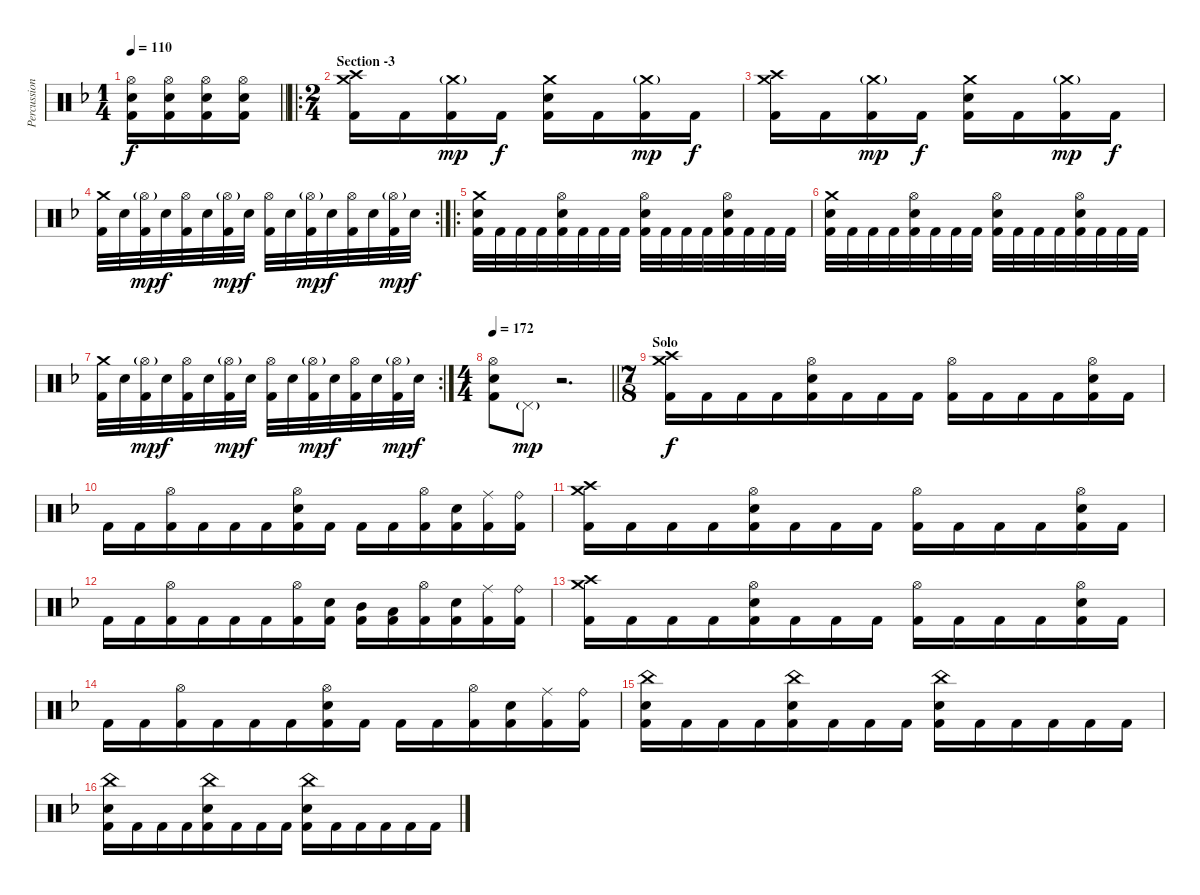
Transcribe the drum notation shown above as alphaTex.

\track ("Percussion" "Percussion") {instrument percussion}
\staff {score}
\articulation defaults
\ts (1 4)
\tempo 110
\clef neutral
\barLineRight lightlight
\ks dminor
("Hi-Hat (open)" "Electric Snare (hit)" "Kick (hit) 2").16{dy f} ("Hi-Hat (open)" "Electric Snare (hit)" "Kick (hit) 2").16 ("Hi-Hat (open)" "Electric Snare (hit)" "Kick (hit) 2").16 ("Hi-Hat (open)" "Electric Snare (hit)" "Kick (hit) 2").16 |
\ro
\ts (2 4)
\section ("" "Section -3")
("Crash high (hit)" "Crash medium (hit)" "Kick (hit) 2").16 "Kick (hit) 2".16 ("Crash medium (hit)"{g} "Kick (hit) 2").16{dy mp} "Kick (hit) 2".16{dy f} ("Crash medium (hit)" "Electric Snare (hit)" "Kick (hit) 2").16 "Kick (hit) 2".16 ("Crash medium (hit)"{g} "Kick (hit) 2").16{dy mp} "Kick (hit) 2".16{dy f} |
("Crash high (hit)" "Crash medium (hit)" "Kick (hit) 2").16 "Kick (hit) 2".16 ("Crash medium (hit)"{g} "Kick (hit) 2").16{dy mp} "Kick (hit) 2".16{dy f} ("Crash medium (hit)" "Electric Snare (hit)" "Kick (hit) 2").16 "Kick (hit) 2".16 ("Crash medium (hit)"{g} "Kick (hit) 2").16{dy mp} "Kick (hit) 2".16{dy f} |
\rc 2
("Crash medium (hit)" "Kick (hit) 2").32 "Electric Snare (hit)".32 ("Hi-Hat (open)"{g} "Kick (hit) 2").32{dy mp} "Electric Snare (hit)".32{dy f} ("Hi-Hat (open)" "Kick (hit) 2").32 "Electric Snare (hit)".32 ("Hi-Hat (open)"{g} "Kick (hit) 2").32{dy mp} "Electric Snare (hit)".32{dy f} ("Hi-Hat (open)" "Kick (hit) 2").32 "Electric Snare (hit)".32 ("Hi-Hat (open)"{g} "Kick (hit) 2").32{dy mp} "Electric Snare (hit)".32{dy f} ("Hi-Hat (open)" "Kick (hit) 2").32 "Electric Snare (hit)".32 ("Hi-Hat (open)"{g} "Kick (hit) 2").32{dy mp} "Electric Snare (hit)".32{dy f} |
\ro
("Crash medium (hit)" "Electric Snare (hit)" "Kick (hit) 2").32 "Kick (hit) 2".32 "Kick (hit) 2".32 "Kick (hit) 2".32 ("Hi-Hat (open)" "Electric Snare (hit)" "Kick (hit) 2").32 "Kick (hit) 2".32 "Kick (hit) 2".32 "Kick (hit) 2".32 ("Hi-Hat (open)" "Electric Snare (hit)" "Kick (hit) 2").32 "Kick (hit) 2".32 "Kick (hit) 2".32 "Kick (hit) 2".32 ("Hi-Hat (open)" "Electric Snare (hit)" "Kick (hit) 2").32 "Kick (hit) 2".32 "Kick (hit) 2".32 "Kick (hit) 2".32 |
("Crash medium (hit)" "Electric Snare (hit)" "Kick (hit) 2").32 "Kick (hit) 2".32 "Kick (hit) 2".32 "Kick (hit) 2".32 ("Hi-Hat (open)" "Electric Snare (hit)" "Kick (hit) 2").32 "Kick (hit) 2".32 "Kick (hit) 2".32 "Kick (hit) 2".32 ("Hi-Hat (open)" "Electric Snare (hit)" "Kick (hit) 2").32 "Kick (hit) 2".32 "Kick (hit) 2".32 "Kick (hit) 2".32 ("Hi-Hat (open)" "Electric Snare (hit)" "Kick (hit) 2").32 "Kick (hit) 2".32 "Kick (hit) 2".32 "Kick (hit) 2".32 |
\rc 2
("Crash medium (hit)" "Kick (hit) 2").32 "Electric Snare (hit)".32 ("Hi-Hat (open)"{g} "Kick (hit) 2").32{dy mp} "Electric Snare (hit)".32{dy f} ("Hi-Hat (open)" "Kick (hit) 2").32 "Electric Snare (hit)".32 ("Hi-Hat (open)"{g} "Kick (hit) 2").32{dy mp} "Electric Snare (hit)".32{dy f} ("Hi-Hat (open)" "Kick (hit) 2").32 "Electric Snare (hit)".32 ("Hi-Hat (open)"{g} "Kick (hit) 2").32{dy mp} "Electric Snare (hit)".32{dy f} ("Hi-Hat (open)" "Kick (hit) 2").32 "Electric Snare (hit)".32 ("Hi-Hat (open)"{g} "Kick (hit) 2").32{dy mp} "Electric Snare (hit)".32{dy f} |
\ts (4 4)
\tempo 172
\barLineRight lightlight
("Hi-Hat (open)" "Electric Snare (hit)" "Kick (hit) 2").8 "Pedal Hi-Hat (hit)"{g}.8{dy mp} r.2{d} |
\ts (7 8)
\section ("" "Solo")
("Crash high (hit)" "Crash medium (hit)" "Kick (hit) 2").16{dy f} "Kick (hit) 2".16 "Kick (hit) 2".16 "Kick (hit) 2".16 ("Hi-Hat (open)" "Electric Snare (hit)" "Kick (hit) 2").16 "Kick (hit) 2".16 "Kick (hit) 2".16 "Kick (hit) 2".16 ("Hi-Hat (open)" "Kick (hit) 2").16 "Kick (hit) 2".16 "Kick (hit) 2".16 "Kick (hit) 2".16 ("Hi-Hat (open)" "Electric Snare (hit)" "Kick (hit) 2").16 "Kick (hit) 2".16 |
"Kick (hit) 2".16 "Kick (hit) 2".16 ("Hi-Hat (open)" "Kick (hit) 2").16 "Kick (hit) 2".16 "Kick (hit) 2".16 "Kick (hit) 2".16 ("Hi-Hat (open)" "Electric Snare (hit)" "Kick (hit) 2").16 "Kick (hit) 2".16 "Kick (hit) 2".16 "Kick (hit) 2".16 ("Hi-Hat (open)" "Kick (hit) 2").16 ("Electric Snare (hit)" "Kick (hit) 2").16 ("Ride (middle)" "Kick (hit) 2").16 ("Ride (bell)" "Kick (hit) 2").16 |
("Crash high (hit)" "Crash medium (hit)" "Kick (hit) 2").16 "Kick (hit) 2".16 "Kick (hit) 2".16 "Kick (hit) 2".16 ("Hi-Hat (open)" "Electric Snare (hit)" "Kick (hit) 2").16 "Kick (hit) 2".16 "Kick (hit) 2".16 "Kick (hit) 2".16 ("Hi-Hat (open)" "Kick (hit) 2").16 "Kick (hit) 2".16 "Kick (hit) 2".16 "Kick (hit) 2".16 ("Hi-Hat (open)" "Electric Snare (hit)" "Kick (hit) 2").16 "Kick (hit) 2".16 |
"Kick (hit) 2".16 "Kick (hit) 2".16 ("Hi-Hat (open)" "Kick (hit) 2").16 "Kick (hit) 2".16 "Kick (hit) 2".16 "Kick (hit) 2".16 ("Hi-Hat (open)" "Kick (hit) 2").16 ("Electric Snare (hit)" "Kick (hit) 2").16 ("Mid Tom (hit)" "Kick (hit) 2").16 ("Low Tom (hit)" "Kick (hit) 2").16 ("Hi-Hat (open)" "Kick (hit) 2").16 ("Electric Snare (hit)" "Kick (hit) 2").16 ("Ride (middle)" "Kick (hit) 2").16 ("Ride (bell)" "Kick (hit) 2").16 |
("Crash high (hit)" "Crash medium (hit)" "Kick (hit) 2").16 "Kick (hit) 2".16 "Kick (hit) 2".16 "Kick (hit) 2".16 ("Hi-Hat (open)" "Electric Snare (hit)" "Kick (hit) 2").16 "Kick (hit) 2".16 "Kick (hit) 2".16 "Kick (hit) 2".16 ("Hi-Hat (open)" "Kick (hit) 2").16 "Kick (hit) 2".16 "Kick (hit) 2".16 "Kick (hit) 2".16 ("Hi-Hat (open)" "Electric Snare (hit)" "Kick (hit) 2").16 "Kick (hit) 2".16 |
"Kick (hit) 2".16 "Kick (hit) 2".16 ("Hi-Hat (open)" "Kick (hit) 2").16 "Kick (hit) 2".16 "Kick (hit) 2".16 "Kick (hit) 2".16 ("Hi-Hat (open)" "Electric Snare (hit)" "Kick (hit) 2").16 "Kick (hit) 2".16 "Kick (hit) 2".16 "Kick (hit) 2".16 ("Hi-Hat (open)" "Kick (hit) 2").16 ("Electric Snare (hit)" "Kick (hit) 2").16 ("Ride (middle)" "Kick (hit) 2").16 ("Ride (bell)" "Kick (hit) 2").16 |
("China (hit)" "Electric Snare (hit)" "Kick (hit) 2").16 "Kick (hit) 2".16 "Kick (hit) 2".16 "Kick (hit) 2".16 ("China (hit)" "Electric Snare (hit)" "Kick (hit) 2").16 "Kick (hit) 2".16 "Kick (hit) 2".16 "Kick (hit) 2".16 ("China (hit)" "Electric Snare (hit)" "Kick (hit) 2").16 "Kick (hit) 2".16 "Kick (hit) 2".16 "Kick (hit) 2".16 "Kick (hit) 2".16 "Kick (hit) 2".16 |
("China (hit)" "Electric Snare (hit)" "Kick (hit) 2").16 "Kick (hit) 2".16 "Kick (hit) 2".16 "Kick (hit) 2".16 ("China (hit)" "Electric Snare (hit)" "Kick (hit) 2").16 "Kick (hit) 2".16 "Kick (hit) 2".16 "Kick (hit) 2".16 ("China (hit)" "Electric Snare (hit)" "Kick (hit) 2").16 "Kick (hit) 2".16 "Kick (hit) 2".16 "Kick (hit) 2".16 "Kick (hit) 2".16 "Kick (hit) 2".16
